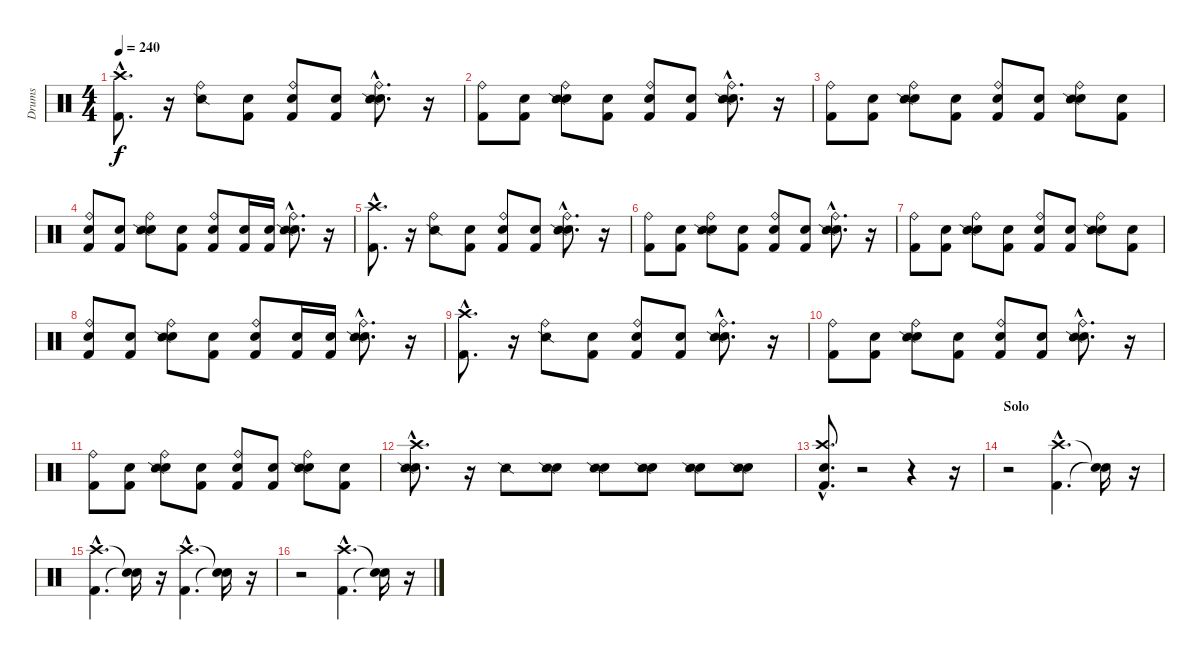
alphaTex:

\track ("Drums" "Drums") {instrument percussion}
\staff {score}
\articulation defaults
\ts (4 4)
\tempo 240
\clef neutral
\ks c
("Kick (hit) 2"{hac} "Crash high (hit)"{hac}).8{d dy f} r.16 ("Ride (bell)" "Snare (side stick) 2").8 ("Snare (hit)" "Kick (hit) 2").8 ("Snare (hit)" "Kick (hit) 2" "Ride (bell)").8 ("Snare (hit)" "Kick (hit) 2").8 ("Snare (hit)"{hac} "Snare (side stick) 2"{hac} "Ride (bell)"{hac}).8{d} r.16 |
("Kick (hit) 2" "Ride (bell)").8 ("Snare (hit)" "Kick (hit) 2").8 ("Snare (hit)" "Ride (bell)" "Snare (side stick) 2").8 ("Snare (hit)" "Kick (hit) 2").8 ("Snare (hit)" "Kick (hit) 2" "Ride (bell)").8 ("Snare (hit)" "Kick (hit) 2").8 ("Snare (hit)"{hac} "Snare (side stick) 2"{hac} "Ride (bell)"{hac}).8{d} r.16 |
("Kick (hit) 2" "Ride (bell)").8 ("Snare (hit)" "Kick (hit) 2").8 ("Snare (hit)" "Ride (bell)" "Snare (side stick) 2").8 ("Snare (hit)" "Kick (hit) 2").8 ("Snare (hit)" "Kick (hit) 2" "Ride (bell)").8 ("Snare (hit)" "Kick (hit) 2").8 ("Snare (hit)" "Ride (bell)" "Snare (side stick) 2").8 ("Snare (hit)" "Kick (hit) 2").8 |
("Snare (hit)" "Kick (hit) 2" "Ride (bell)").8 ("Snare (hit)" "Kick (hit) 2").8 ("Snare (hit)" "Ride (bell)" "Snare (side stick) 2").8 ("Snare (hit)" "Kick (hit) 2").8 ("Snare (hit)" "Kick (hit) 2" "Ride (bell)").8 ("Snare (hit)" "Kick (hit) 2").16 ("Snare (hit)" "Kick (hit) 2").16 ("Snare (hit)"{hac} "Snare (side stick) 2"{hac} "Ride (bell)"{hac}).8{d} r.16 |
("Kick (hit) 2"{hac} "Crash high (hit)"{hac}).8{d} r.16 ("Ride (bell)" "Snare (side stick) 2").8 ("Snare (hit)" "Kick (hit) 2").8 ("Snare (hit)" "Kick (hit) 2" "Ride (bell)").8 ("Snare (hit)" "Kick (hit) 2").8 ("Snare (hit)"{hac} "Snare (side stick) 2"{hac} "Ride (bell)"{hac}).8{d} r.16 |
("Kick (hit) 2" "Ride (bell)").8 ("Snare (hit)" "Kick (hit) 2").8 ("Snare (hit)" "Ride (bell)" "Snare (side stick) 2").8 ("Snare (hit)" "Kick (hit) 2").8 ("Snare (hit)" "Kick (hit) 2" "Ride (bell)").8 ("Snare (hit)" "Kick (hit) 2").8 ("Snare (hit)"{hac} "Snare (side stick) 2"{hac} "Ride (bell)"{hac}).8{d} r.16 |
("Kick (hit) 2" "Ride (bell)").8 ("Snare (hit)" "Kick (hit) 2").8 ("Snare (hit)" "Ride (bell)" "Snare (side stick) 2").8 ("Snare (hit)" "Kick (hit) 2").8 ("Snare (hit)" "Kick (hit) 2" "Ride (bell)").8 ("Snare (hit)" "Kick (hit) 2").8 ("Snare (hit)" "Ride (bell)" "Snare (side stick) 2").8 ("Snare (hit)" "Kick (hit) 2").8 |
("Snare (hit)" "Kick (hit) 2" "Ride (bell)").8 ("Snare (hit)" "Kick (hit) 2").8 ("Snare (hit)" "Ride (bell)" "Snare (side stick) 2").8 ("Snare (hit)" "Kick (hit) 2").8 ("Snare (hit)" "Kick (hit) 2" "Ride (bell)").8 ("Snare (hit)" "Kick (hit) 2").16 ("Snare (hit)" "Kick (hit) 2").16 ("Snare (hit)"{hac} "Snare (side stick) 2"{hac} "Ride (bell)"{hac}).8{d} r.16 |
("Kick (hit) 2"{hac} "Crash high (hit)"{hac}).8{d} r.16 ("Ride (bell)" "Snare (side stick) 2").8 ("Snare (hit)" "Kick (hit) 2").8 ("Snare (hit)" "Kick (hit) 2" "Ride (bell)").8 ("Snare (hit)" "Kick (hit) 2").8 ("Snare (hit)"{hac} "Snare (side stick) 2"{hac} "Ride (bell)"{hac}).8{d} r.16 |
("Kick (hit) 2" "Ride (bell)").8 ("Snare (hit)" "Kick (hit) 2").8 ("Snare (hit)" "Ride (bell)" "Snare (side stick) 2").8 ("Snare (hit)" "Kick (hit) 2").8 ("Snare (hit)" "Kick (hit) 2" "Ride (bell)").8 ("Snare (hit)" "Kick (hit) 2").8 ("Snare (hit)"{hac} "Snare (side stick) 2"{hac} "Ride (bell)"{hac}).8{d} r.16 |
("Kick (hit) 2" "Ride (bell)").8 ("Snare (hit)" "Kick (hit) 2").8 ("Snare (hit)" "Ride (bell)" "Snare (side stick) 2").8 ("Snare (hit)" "Kick (hit) 2").8 ("Snare (hit)" "Kick (hit) 2" "Ride (bell)").8 ("Snare (hit)" "Kick (hit) 2").8 ("Snare (hit)" "Ride (bell)" "Snare (side stick) 2").8 ("Snare (hit)" "Kick (hit) 2").8 |
("Snare (hit)"{hac} "Snare (side stick) 2"{hac} "Crash high (hit)"{hac}).8{d} r.16 "Snare (side stick) 2".8 ("Snare (hit)" "Snare (side stick) 2").8 ("Snare (hit)" "Snare (side stick) 2").8 ("Snare (hit)" "Snare (side stick) 2").8 ("Snare (hit)" "Snare (side stick) 2").8 ("Snare (hit)" "Snare (side stick) 2").8 |
("Snare (hit)"{hac} "Kick (hit) 2"{hac} "Crash high (hit)"{hac}).8{d} r.2 r.4 r.16 |
\section ("" "Solo")
r.2 ("Kick (hit) 2"{hac} "Crash high (hit)"{hac}).4{d} ("Snare (hit)"{t} "Snare (hit)"{t}).16 r.16 |
("Kick (hit) 2"{hac} "Crash high (hit)"{hac}).4{d} ("Snare (hit)"{t} "Snare (hit)"{t}).16 r.16 ("Kick (hit) 2"{hac} "Crash high (hit)"{hac}).4{d} ("Snare (hit)"{t} "Snare (hit)"{t}).16 r.16 |
r.2 ("Kick (hit) 2"{hac} "Crash high (hit)"{hac}).4{d} ("Snare (hit)"{t} "Snare (hit)"{t}).16 r.16
